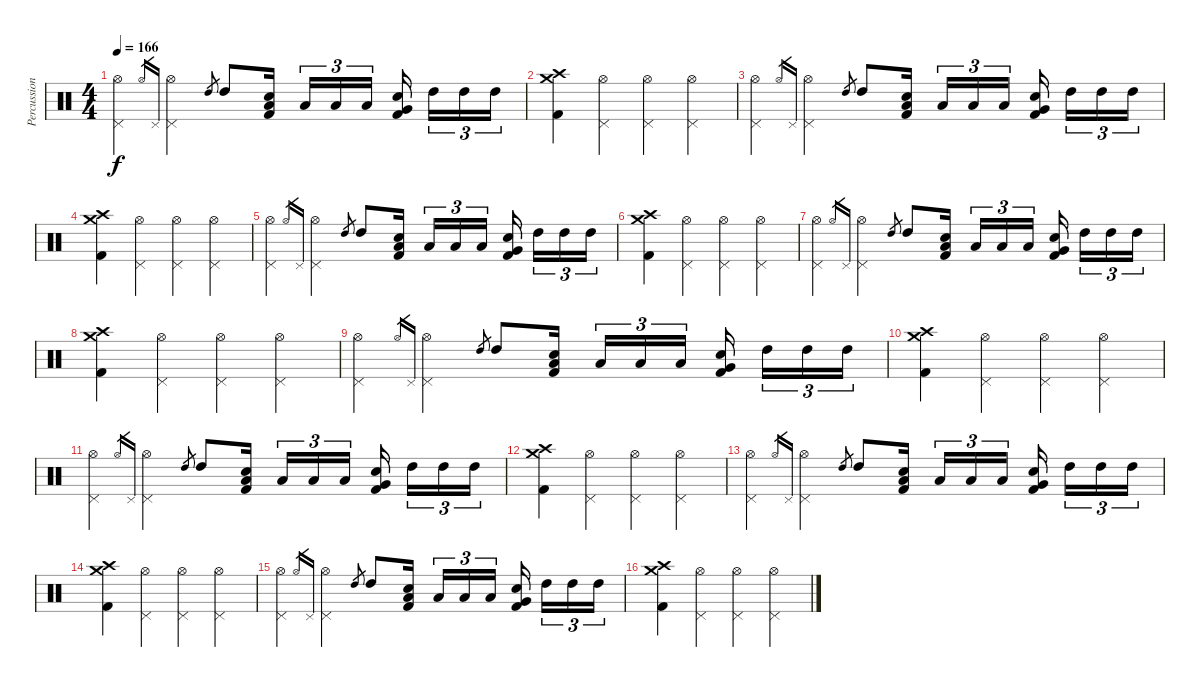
\track ("Percussion" "Percussion") {instrument percussion}
\staff {score}
\articulation defaults
\ts (4 4)
\tempo 166
\clef neutral
\ks c
("Hi-Hat (open)" "Pedal Hi-Hat (hit)").4{dy f} "Hi-Hat (open)".16{gr} "Pedal Hi-Hat (hit)".16{gr} ("Hi-Hat (open)" "Pedal Hi-Hat (hit)").4 "High Tom (hit)".8{gr} "High Tom (hit)".8 ("Low Floor Tom (hit)" "Snare (hit) 2" "Kick (hit) 2").16 "Low Tom (hit)".16{tu (3 2)} "Low Tom (hit)".16{tu (3 2)} "Low Tom (hit)".16{tu (3 2)} ("Very Low Tom (hit)" "Snare (hit) 2" "Kick (hit) 2").16 "High Tom (hit)".16{tu (3 2)} "High Tom (hit)".16{tu (3 2)} "High Tom (hit)".16{tu (3 2)} |
("Crash high (hit)" "Crash medium (hit)" "Kick (hit) 2").4 ("Hi-Hat (open)" "Pedal Hi-Hat (hit)").4 ("Hi-Hat (open)" "Pedal Hi-Hat (hit)").4 ("Hi-Hat (open)" "Pedal Hi-Hat (hit)").4 |
("Hi-Hat (open)" "Pedal Hi-Hat (hit)").4 "Hi-Hat (open)".16{gr} "Pedal Hi-Hat (hit)".16{gr} ("Hi-Hat (open)" "Pedal Hi-Hat (hit)").4 "High Tom (hit)".8{gr} "High Tom (hit)".8 ("Low Floor Tom (hit)" "Snare (hit) 2" "Kick (hit) 2").16 "Low Tom (hit)".16{tu (3 2)} "Low Tom (hit)".16{tu (3 2)} "Low Tom (hit)".16{tu (3 2)} ("Very Low Tom (hit)" "Snare (hit) 2" "Kick (hit) 2").16 "High Tom (hit)".16{tu (3 2)} "High Tom (hit)".16{tu (3 2)} "High Tom (hit)".16{tu (3 2)} |
("Crash medium (hit)" "Crash high (hit)" "Kick (hit) 2").4 ("Hi-Hat (open)" "Pedal Hi-Hat (hit)").4 ("Hi-Hat (open)" "Pedal Hi-Hat (hit)").4 ("Hi-Hat (open)" "Pedal Hi-Hat (hit)").4 |
("Hi-Hat (open)" "Pedal Hi-Hat (hit)").4 "Hi-Hat (open)".16{gr} "Pedal Hi-Hat (hit)".16{gr} ("Hi-Hat (open)" "Pedal Hi-Hat (hit)").4 "High Tom (hit)".8{gr} "High Tom (hit)".8 ("Low Floor Tom (hit)" "Snare (hit) 2" "Kick (hit) 2").16 "Low Tom (hit)".16{tu (3 2)} "Low Tom (hit)".16{tu (3 2)} "Low Tom (hit)".16{tu (3 2)} ("Very Low Tom (hit)" "Snare (hit) 2" "Kick (hit) 2").16 "High Tom (hit)".16{tu (3 2)} "High Tom (hit)".16{tu (3 2)} "High Tom (hit)".16{tu (3 2)} |
("Crash high (hit)" "Crash medium (hit)" "Kick (hit) 2").4 ("Hi-Hat (open)" "Pedal Hi-Hat (hit)").4 ("Hi-Hat (open)" "Pedal Hi-Hat (hit)").4 ("Hi-Hat (open)" "Pedal Hi-Hat (hit)").4 |
("Hi-Hat (open)" "Pedal Hi-Hat (hit)").4 "Hi-Hat (open)".16{gr} "Pedal Hi-Hat (hit)".16{gr} ("Hi-Hat (open)" "Pedal Hi-Hat (hit)").4 "High Tom (hit)".8{gr} "High Tom (hit)".8 ("Low Floor Tom (hit)" "Snare (hit) 2" "Kick (hit) 2").16 "Low Tom (hit)".16{tu (3 2)} "Low Tom (hit)".16{tu (3 2)} "Low Tom (hit)".16{tu (3 2)} ("Very Low Tom (hit)" "Snare (hit) 2" "Kick (hit) 2").16 "High Tom (hit)".16{tu (3 2)} "High Tom (hit)".16{tu (3 2)} "High Tom (hit)".16{tu (3 2)} |
("Crash medium (hit)" "Crash high (hit)" "Kick (hit) 2").4 ("Hi-Hat (open)" "Pedal Hi-Hat (hit)").4 ("Hi-Hat (open)" "Pedal Hi-Hat (hit)").4 ("Hi-Hat (open)" "Pedal Hi-Hat (hit)").4 |
("Hi-Hat (open)" "Pedal Hi-Hat (hit)").4 "Hi-Hat (open)".16{gr} "Pedal Hi-Hat (hit)".16{gr} ("Hi-Hat (open)" "Pedal Hi-Hat (hit)").4 "High Tom (hit)".8{gr} "High Tom (hit)".8 ("Low Floor Tom (hit)" "Snare (hit) 2" "Kick (hit) 2").16 "Low Tom (hit)".16{tu (3 2)} "Low Tom (hit)".16{tu (3 2)} "Low Tom (hit)".16{tu (3 2)} ("Very Low Tom (hit)" "Snare (hit) 2" "Kick (hit) 2").16 "High Tom (hit)".16{tu (3 2)} "High Tom (hit)".16{tu (3 2)} "High Tom (hit)".16{tu (3 2)} |
("Crash high (hit)" "Crash medium (hit)" "Kick (hit) 2").4 ("Hi-Hat (open)" "Pedal Hi-Hat (hit)").4 ("Hi-Hat (open)" "Pedal Hi-Hat (hit)").4 ("Hi-Hat (open)" "Pedal Hi-Hat (hit)").4 |
("Hi-Hat (open)" "Pedal Hi-Hat (hit)").4 "Hi-Hat (open)".16{gr} "Pedal Hi-Hat (hit)".16{gr} ("Hi-Hat (open)" "Pedal Hi-Hat (hit)").4 "High Tom (hit)".8{gr} "High Tom (hit)".8 ("Low Floor Tom (hit)" "Snare (hit) 2" "Kick (hit) 2").16 "Low Tom (hit)".16{tu (3 2)} "Low Tom (hit)".16{tu (3 2)} "Low Tom (hit)".16{tu (3 2)} ("Very Low Tom (hit)" "Snare (hit) 2" "Kick (hit) 2").16 "High Tom (hit)".16{tu (3 2)} "High Tom (hit)".16{tu (3 2)} "High Tom (hit)".16{tu (3 2)} |
("Crash medium (hit)" "Crash high (hit)" "Kick (hit) 2").4 ("Hi-Hat (open)" "Pedal Hi-Hat (hit)").4 ("Hi-Hat (open)" "Pedal Hi-Hat (hit)").4 ("Hi-Hat (open)" "Pedal Hi-Hat (hit)").4 |
("Hi-Hat (open)" "Pedal Hi-Hat (hit)").4 "Hi-Hat (open)".16{gr} "Pedal Hi-Hat (hit)".16{gr} ("Hi-Hat (open)" "Pedal Hi-Hat (hit)").4 "High Tom (hit)".8{gr} "High Tom (hit)".8 ("Low Floor Tom (hit)" "Snare (hit) 2" "Kick (hit) 2").16 "Low Tom (hit)".16{tu (3 2)} "Low Tom (hit)".16{tu (3 2)} "Low Tom (hit)".16{tu (3 2)} ("Very Low Tom (hit)" "Snare (hit) 2" "Kick (hit) 2").16 "High Tom (hit)".16{tu (3 2)} "High Tom (hit)".16{tu (3 2)} "High Tom (hit)".16{tu (3 2)} |
("Crash high (hit)" "Crash medium (hit)" "Kick (hit) 2").4 ("Hi-Hat (open)" "Pedal Hi-Hat (hit)").4 ("Hi-Hat (open)" "Pedal Hi-Hat (hit)").4 ("Hi-Hat (open)" "Pedal Hi-Hat (hit)").4 |
("Hi-Hat (open)" "Pedal Hi-Hat (hit)").4 "Hi-Hat (open)".16{gr} "Pedal Hi-Hat (hit)".16{gr} ("Hi-Hat (open)" "Pedal Hi-Hat (hit)").4 "High Tom (hit)".8{gr} "High Tom (hit)".8 ("Low Floor Tom (hit)" "Snare (hit) 2" "Kick (hit) 2").16 "Low Tom (hit)".16{tu (3 2)} "Low Tom (hit)".16{tu (3 2)} "Low Tom (hit)".16{tu (3 2)} ("Very Low Tom (hit)" "Snare (hit) 2" "Kick (hit) 2").16 "High Tom (hit)".16{tu (3 2)} "High Tom (hit)".16{tu (3 2)} "High Tom (hit)".16{tu (3 2)} |
("Crash medium (hit)" "Crash high (hit)" "Kick (hit) 2").4 ("Hi-Hat (open)" "Pedal Hi-Hat (hit)").4 ("Hi-Hat (open)" "Pedal Hi-Hat (hit)").4 ("Hi-Hat (open)" "Pedal Hi-Hat (hit)").4
